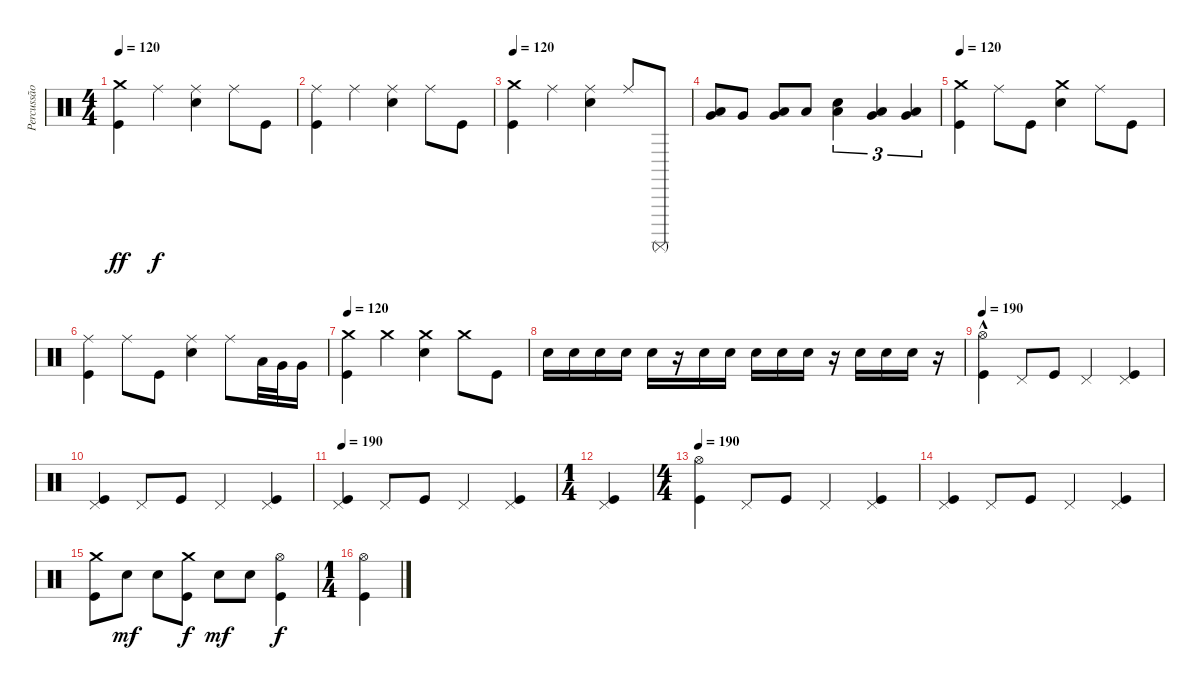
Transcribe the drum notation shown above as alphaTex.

\track ("Percussão" "Percussão") {instrument percussion}
\staff {score}
\articulation defaults
\ts (4 4)
\tempo 120
\clef neutral
\ks c
("Crash medium (hit)" "Kick (hit)").4{dy ff} "Ride (middle)".4{dy f} ("Electric Snare (hit)" "Ride (middle)").4 "Ride (middle)".8 "Kick (hit)".8 |
("Kick (hit)" "Ride (middle)").4 "Ride (middle)".4 ("Electric Snare (hit)" "Ride (middle)").4 "Ride (middle)".8 "Kick (hit)".8 |
\tempo 120
("Kick (hit)" "Crash medium (hit)").4 "Ride (middle)".4 ("Electric Snare (hit)" "Ride (middle)").4 "Ride (middle)".8 "Surdo (mute)".8 |
("Low Floor Tom (hit)" "Very Low Tom (hit)").8 "Very Low Tom (hit)".8 ("Low Floor Tom (hit)" "Very Low Tom (hit)").8 "Low Floor Tom (hit)".8 ("Electric Snare (hit)" "Low Tom (hit)").4{tu (3 2)} ("Very Low Tom (hit)" "Low Floor Tom (hit)").4{tu (3 2)} ("Very Low Tom (hit)" "Low Floor Tom (hit)").4{tu (3 2)} |
\tempo 120
("Kick (hit)" "Crash medium (hit)").4 "Ride (middle)".8 "Kick (hit)".8 ("Electric Snare (hit)" "Crash medium (hit)").4 "Ride (middle)".8 "Kick (hit)".8 |
("Kick (hit)" "Ride (middle)").4 "Ride (middle)".8 "Kick (hit)".8 ("Electric Snare (hit)" "Ride (middle)").4 "Ride (middle)".8 "Low Tom (hit)".32 "Very Low Tom (hit)".32 "Very Low Tom (hit)".16 |
\tempo 120
("Kick (hit)" "Crash medium (hit)").4 "Crash medium (hit)".4 ("Electric Snare (hit)" "Crash medium (hit)").4 "Crash medium (hit)".8 "Kick (hit)".8 |
"Electric Snare (hit)".16 "Electric Snare (hit)".16 "Electric Snare (hit)".16 "Electric Snare (hit)".16 "Electric Snare (hit)".16 r.16 "Electric Snare (hit)".16 "Electric Snare (hit)".16 "Electric Snare (hit)".16 "Electric Snare (hit)".16 "Electric Snare (hit)".16 r.16 "Electric Snare (hit)".16 "Electric Snare (hit)".16 "Electric Snare (hit)".16 r.16 |
\tempo 190
("Kick (hit)" "Hi-Hat (open)"{hac}).4 "Pedal Hi-Hat (hit)".8 "Kick (hit)".8 "Pedal Hi-Hat (hit)".4 ("Kick (hit)" "Pedal Hi-Hat (hit)").4 |
("Kick (hit)" "Pedal Hi-Hat (hit)").4 "Pedal Hi-Hat (hit)".8 "Kick (hit)".8 "Pedal Hi-Hat (hit)".4 ("Kick (hit)" "Pedal Hi-Hat (hit)").4 |
\tempo 190
("Kick (hit)" "Pedal Hi-Hat (hit)").4 "Pedal Hi-Hat (hit)".8 "Kick (hit)".8 "Pedal Hi-Hat (hit)".4 ("Kick (hit)" "Pedal Hi-Hat (hit)").4 |
\ts (1 4)
("Kick (hit)" "Pedal Hi-Hat (hit)").4 |
\ts (4 4)
\tempo 190
("Kick (hit)" "Hi-Hat (open)").4 "Pedal Hi-Hat (hit)".8 "Kick (hit)".8 "Pedal Hi-Hat (hit)".4 ("Kick (hit)" "Pedal Hi-Hat (hit)").4 |
("Kick (hit)" "Pedal Hi-Hat (hit)").4 "Pedal Hi-Hat (hit)".8 "Kick (hit)".8 "Pedal Hi-Hat (hit)".4 ("Kick (hit)" "Pedal Hi-Hat (hit)").4 |
("Kick (hit)" "Crash medium (hit)").8 "Electric Snare (hit)".8{dy mf} "Electric Snare (hit)".8 ("Kick (hit)" "Crash medium (hit)").8{dy f} "Electric Snare (hit)".8{dy mf} "Electric Snare (hit)".8 ("Kick (hit)" "Hi-Hat (open)").4{dy f} |
\ts (1 4)
("Kick (hit)" "Hi-Hat (open)").4
